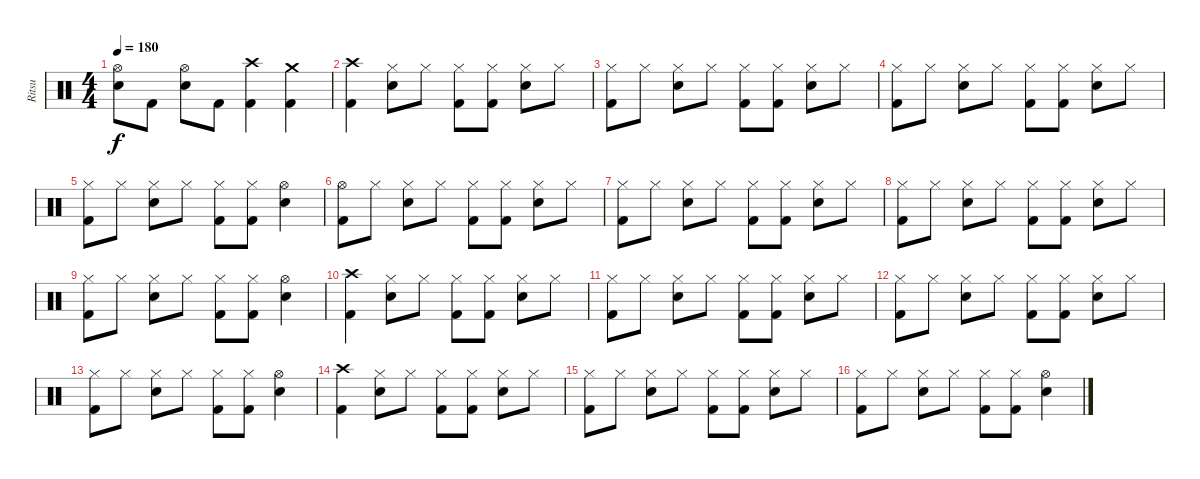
\track ("Ritsu" "Ritsu") {instrument percussion}
\staff {score}
\articulation defaults
\ts (4 4)
\tempo 180
\clef neutral
\ks c
("Hi-Hat (open)" "Snare (hit) 2").8{dy f} "Kick (hit) 2".8 ("Hi-Hat (open)" "Snare (hit) 2").8 "Kick (hit) 2".8 ("Crash high (hit)" "Kick (hit) 2").4 ("Crash medium (hit)" "Kick (hit) 2").4 |
("Crash high (hit)" "Kick (hit) 2").4 ("Hi-Hat (closed)" "Snare (hit) 2").8 "Hi-Hat (closed)".8 ("Hi-Hat (closed)" "Kick (hit) 2").8 ("Hi-Hat (closed)" "Kick (hit) 2").8 ("Hi-Hat (closed)" "Snare (hit) 2").8 "Hi-Hat (closed)".8 |
("Hi-Hat (closed)" "Kick (hit) 2").8 "Hi-Hat (closed)".8 ("Hi-Hat (closed)" "Snare (hit) 2").8 "Hi-Hat (closed)".8 ("Hi-Hat (closed)" "Kick (hit) 2").8 ("Hi-Hat (closed)" "Kick (hit) 2").8 ("Hi-Hat (closed)" "Snare (hit) 2").8 "Hi-Hat (closed)".8 |
("Hi-Hat (closed)" "Kick (hit) 2").8 "Hi-Hat (closed)".8 ("Hi-Hat (closed)" "Snare (hit) 2").8 "Hi-Hat (closed)".8 ("Hi-Hat (closed)" "Kick (hit) 2").8 ("Hi-Hat (closed)" "Kick (hit) 2").8 ("Hi-Hat (closed)" "Snare (hit) 2").8 "Hi-Hat (closed)".8 |
("Hi-Hat (closed)" "Kick (hit) 2").8 "Hi-Hat (closed)".8 ("Hi-Hat (closed)" "Snare (hit) 2").8 "Hi-Hat (closed)".8 ("Hi-Hat (closed)" "Kick (hit) 2").8 ("Hi-Hat (closed)" "Kick (hit) 2").8 ("Hi-Hat (open)" "Snare (hit) 2").4 |
("Hi-Hat (open)" "Kick (hit) 2").8 "Hi-Hat (closed)".8 ("Hi-Hat (closed)" "Snare (hit) 2").8 "Hi-Hat (closed)".8 ("Hi-Hat (closed)" "Kick (hit) 2").8 ("Hi-Hat (closed)" "Kick (hit) 2").8 ("Hi-Hat (closed)" "Snare (hit) 2").8 "Hi-Hat (closed)".8 |
("Hi-Hat (closed)" "Kick (hit) 2").8 "Hi-Hat (closed)".8 ("Hi-Hat (closed)" "Snare (hit) 2").8 "Hi-Hat (closed)".8 ("Hi-Hat (closed)" "Kick (hit) 2").8 ("Hi-Hat (closed)" "Kick (hit) 2").8 ("Hi-Hat (closed)" "Snare (hit) 2").8 "Hi-Hat (closed)".8 |
("Hi-Hat (closed)" "Kick (hit) 2").8 "Hi-Hat (closed)".8 ("Hi-Hat (closed)" "Snare (hit) 2").8 "Hi-Hat (closed)".8 ("Hi-Hat (closed)" "Kick (hit) 2").8 ("Hi-Hat (closed)" "Kick (hit) 2").8 ("Hi-Hat (closed)" "Snare (hit) 2").8 "Hi-Hat (closed)".8 |
("Hi-Hat (closed)" "Kick (hit) 2").8 "Hi-Hat (closed)".8 ("Hi-Hat (closed)" "Snare (hit) 2").8 "Hi-Hat (closed)".8 ("Hi-Hat (closed)" "Kick (hit) 2").8 ("Hi-Hat (closed)" "Kick (hit) 2").8 ("Hi-Hat (open)" "Snare (hit) 2").4 |
("Crash high (hit)" "Kick (hit) 2").4 ("Hi-Hat (closed)" "Snare (hit) 2").8 "Hi-Hat (closed)".8 ("Hi-Hat (closed)" "Kick (hit) 2").8 ("Hi-Hat (closed)" "Kick (hit) 2").8 ("Hi-Hat (closed)" "Snare (hit) 2").8 "Hi-Hat (closed)".8 |
("Hi-Hat (closed)" "Kick (hit) 2").8 "Hi-Hat (closed)".8 ("Hi-Hat (closed)" "Snare (hit) 2").8 "Hi-Hat (closed)".8 ("Hi-Hat (closed)" "Kick (hit) 2").8 ("Hi-Hat (closed)" "Kick (hit) 2").8 ("Hi-Hat (closed)" "Snare (hit) 2").8 "Hi-Hat (closed)".8 |
("Hi-Hat (closed)" "Kick (hit) 2").8 "Hi-Hat (closed)".8 ("Hi-Hat (closed)" "Snare (hit) 2").8 "Hi-Hat (closed)".8 ("Hi-Hat (closed)" "Kick (hit) 2").8 ("Hi-Hat (closed)" "Kick (hit) 2").8 ("Hi-Hat (closed)" "Snare (hit) 2").8 "Hi-Hat (closed)".8 |
("Hi-Hat (closed)" "Kick (hit) 2").8 "Hi-Hat (closed)".8 ("Hi-Hat (closed)" "Snare (hit) 2").8 "Hi-Hat (closed)".8 ("Hi-Hat (closed)" "Kick (hit) 2").8 ("Hi-Hat (closed)" "Kick (hit) 2").8 ("Hi-Hat (open)" "Snare (hit) 2").4 |
("Crash high (hit)" "Kick (hit) 2").4 ("Hi-Hat (closed)" "Snare (hit) 2").8 "Hi-Hat (closed)".8 ("Hi-Hat (closed)" "Kick (hit) 2").8 ("Hi-Hat (closed)" "Kick (hit) 2").8 ("Hi-Hat (closed)" "Snare (hit) 2").8 "Hi-Hat (closed)".8 |
("Hi-Hat (closed)" "Kick (hit) 2").8 "Hi-Hat (closed)".8 ("Hi-Hat (closed)" "Snare (hit) 2").8 "Hi-Hat (closed)".8 ("Hi-Hat (closed)" "Kick (hit) 2").8 ("Hi-Hat (closed)" "Kick (hit) 2").8 ("Hi-Hat (closed)" "Snare (hit) 2").8 "Hi-Hat (closed)".8 |
("Hi-Hat (closed)" "Kick (hit) 2").8 "Hi-Hat (closed)".8 ("Hi-Hat (closed)" "Snare (hit) 2").8 "Hi-Hat (closed)".8 ("Hi-Hat (closed)" "Kick (hit) 2").8 ("Hi-Hat (closed)" "Kick (hit) 2").8 ("Hi-Hat (open)" "Snare (hit) 2").4
